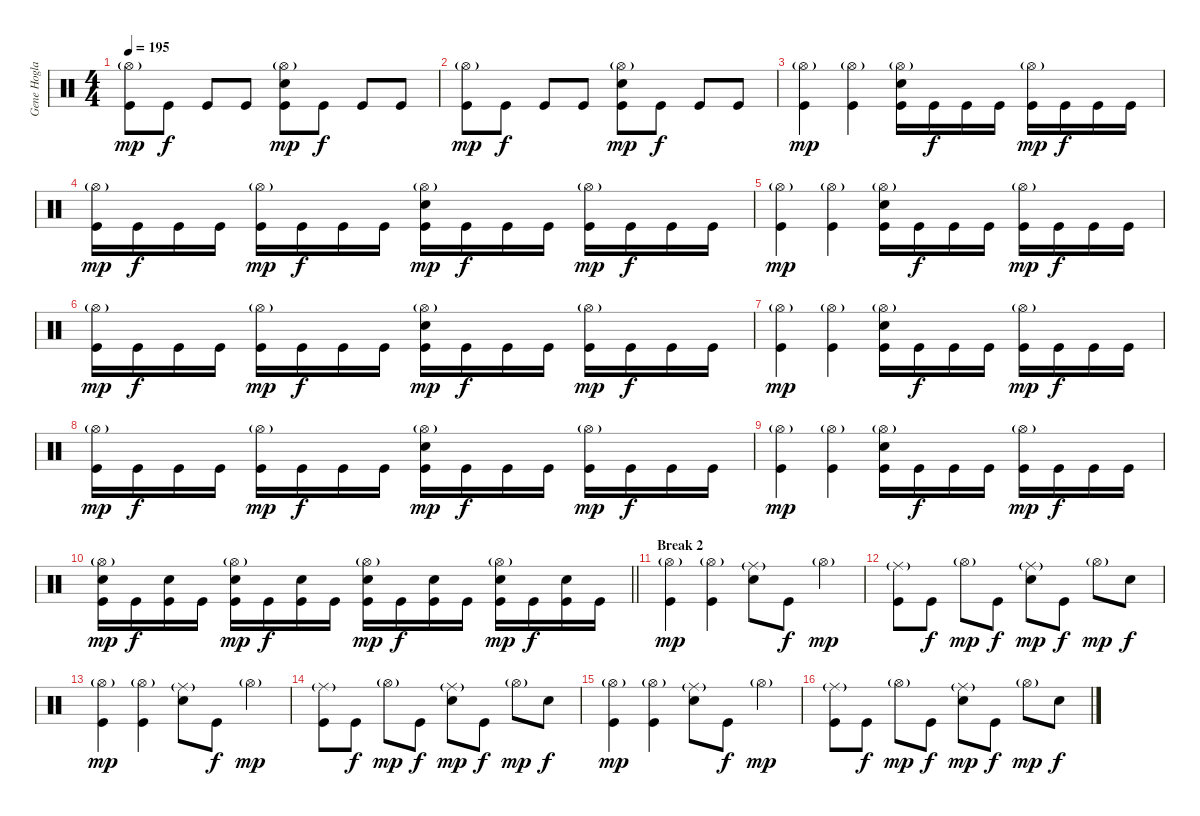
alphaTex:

\track ("Gene Hoglan" "Gene Hogla") {instrument percussion}
\staff {score}
\articulation defaults
\ts (4 4)
\tempo 195
\clef neutral
\ks c
("Hi-Hat (open)"{g} "Kick (hit)").8{dy mp} "Kick (hit)".8{dy f} "Kick (hit)".8 "Kick (hit)".8 ("Hi-Hat (open)"{g} "Electric Snare (hit)" "Kick (hit)").8{dy mp} "Kick (hit)".8{dy f} "Kick (hit)".8 "Kick (hit)".8 |
("Hi-Hat (open)"{g} "Kick (hit)").8{dy mp} "Kick (hit)".8{dy f} "Kick (hit)".8 "Kick (hit)".8 ("Hi-Hat (open)"{g} "Electric Snare (hit)" "Kick (hit)").8{dy mp} "Kick (hit)".8{dy f} "Kick (hit)".8 "Kick (hit)".8 |
("Hi-Hat (open)"{g} "Kick (hit)").4{dy mp} ("Hi-Hat (open)"{g} "Kick (hit)").4 ("Hi-Hat (open)"{g} "Electric Snare (hit)" "Kick (hit)").16 "Kick (hit)".16{dy f} "Kick (hit)".16 "Kick (hit)".16 ("Hi-Hat (open)"{g} "Kick (hit)").16{dy mp} "Kick (hit)".16{dy f} "Kick (hit)".16 "Kick (hit)".16 |
("Hi-Hat (open)"{g} "Kick (hit)").16{dy mp} "Kick (hit)".16{dy f} "Kick (hit)".16 "Kick (hit)".16 ("Hi-Hat (open)"{g} "Kick (hit)").16{dy mp} "Kick (hit)".16{dy f} "Kick (hit)".16 "Kick (hit)".16 ("Hi-Hat (open)"{g} "Electric Snare (hit)" "Kick (hit)").16{dy mp} "Kick (hit)".16{dy f} "Kick (hit)".16 "Kick (hit)".16 ("Hi-Hat (open)"{g} "Kick (hit)").16{dy mp} "Kick (hit)".16{dy f} "Kick (hit)".16 "Kick (hit)".16 |
("Hi-Hat (open)"{g} "Kick (hit)").4{dy mp} ("Hi-Hat (open)"{g} "Kick (hit)").4 ("Hi-Hat (open)"{g} "Electric Snare (hit)" "Kick (hit)").16 "Kick (hit)".16{dy f} "Kick (hit)".16 "Kick (hit)".16 ("Hi-Hat (open)"{g} "Kick (hit)").16{dy mp} "Kick (hit)".16{dy f} "Kick (hit)".16 "Kick (hit)".16 |
("Hi-Hat (open)"{g} "Kick (hit)").16{dy mp} "Kick (hit)".16{dy f} "Kick (hit)".16 "Kick (hit)".16 ("Hi-Hat (open)"{g} "Kick (hit)").16{dy mp} "Kick (hit)".16{dy f} "Kick (hit)".16 "Kick (hit)".16 ("Hi-Hat (open)"{g} "Electric Snare (hit)" "Kick (hit)").16{dy mp} "Kick (hit)".16{dy f} "Kick (hit)".16 "Kick (hit)".16 ("Hi-Hat (open)"{g} "Kick (hit)").16{dy mp} "Kick (hit)".16{dy f} "Kick (hit)".16 "Kick (hit)".16 |
("Hi-Hat (open)"{g} "Kick (hit)").4{dy mp} ("Hi-Hat (open)"{g} "Kick (hit)").4 ("Hi-Hat (open)"{g} "Electric Snare (hit)" "Kick (hit)").16 "Kick (hit)".16{dy f} "Kick (hit)".16 "Kick (hit)".16 ("Hi-Hat (open)"{g} "Kick (hit)").16{dy mp} "Kick (hit)".16{dy f} "Kick (hit)".16 "Kick (hit)".16 |
("Hi-Hat (open)"{g} "Kick (hit)").16{dy mp} "Kick (hit)".16{dy f} "Kick (hit)".16 "Kick (hit)".16 ("Hi-Hat (open)"{g} "Kick (hit)").16{dy mp} "Kick (hit)".16{dy f} "Kick (hit)".16 "Kick (hit)".16 ("Hi-Hat (open)"{g} "Electric Snare (hit)" "Kick (hit)").16{dy mp} "Kick (hit)".16{dy f} "Kick (hit)".16 "Kick (hit)".16 ("Hi-Hat (open)"{g} "Kick (hit)").16{dy mp} "Kick (hit)".16{dy f} "Kick (hit)".16 "Kick (hit)".16 |
("Hi-Hat (open)"{g} "Kick (hit)").4{dy mp} ("Hi-Hat (open)"{g} "Kick (hit)").4 ("Hi-Hat (open)"{g} "Electric Snare (hit)" "Kick (hit)").16 "Kick (hit)".16{dy f} "Kick (hit)".16 "Kick (hit)".16 ("Hi-Hat (open)"{g} "Kick (hit)").16{dy mp} "Kick (hit)".16{dy f} "Kick (hit)".16 "Kick (hit)".16 |
\barLineRight lightlight
("Hi-Hat (open)"{g} "Electric Snare (hit)" "Kick (hit)").16{dy mp} "Kick (hit)".16{dy f} ("Electric Snare (hit)" "Kick (hit)").16 "Kick (hit)".16 ("Hi-Hat (open)"{g} "Electric Snare (hit)" "Kick (hit)").16{dy mp} "Kick (hit)".16{dy f} ("Electric Snare (hit)" "Kick (hit)").16 "Kick (hit)".16 ("Hi-Hat (open)"{g} "Electric Snare (hit)" "Kick (hit)").16{dy mp} "Kick (hit)".16{dy f} ("Electric Snare (hit)" "Kick (hit)").16 "Kick (hit)".16 ("Hi-Hat (open)"{g} "Electric Snare (hit)" "Kick (hit)").16{dy mp} "Kick (hit)".16{dy f} ("Electric Snare (hit)" "Kick (hit)").16 "Kick (hit)".16 |
\section ("" "Break 2")
("Hi-Hat (open)"{g} "Kick (hit)").4{dy mp} ("Hi-Hat (open)"{g} "Kick (hit)").4 ("Ride (middle)"{g} "Electric Snare (hit)").8 "Kick (hit)".8{dy f} "Hi-Hat (open)"{g}.4{dy mp} |
("Ride (middle)"{g} "Kick (hit)").8 "Kick (hit)".8{dy f} "Hi-Hat (open)"{g}.8{dy mp} "Kick (hit)".8{dy f} ("Ride (middle)"{g} "Electric Snare (hit)").8{dy mp} "Kick (hit)".8{dy f} "Hi-Hat (open)"{g}.8{dy mp} "Electric Snare (hit)".8{dy f} |
("Hi-Hat (open)"{g} "Kick (hit)").4{dy mp} ("Hi-Hat (open)"{g} "Kick (hit)").4 ("Ride (middle)"{g} "Electric Snare (hit)").8 "Kick (hit)".8{dy f} "Hi-Hat (open)"{g}.4{dy mp} |
("Ride (middle)"{g} "Kick (hit)").8 "Kick (hit)".8{dy f} "Hi-Hat (open)"{g}.8{dy mp} "Kick (hit)".8{dy f} ("Ride (middle)"{g} "Electric Snare (hit)").8{dy mp} "Kick (hit)".8{dy f} "Hi-Hat (open)"{g}.8{dy mp} "Electric Snare (hit)".8{dy f} |
("Hi-Hat (open)"{g} "Kick (hit)").4{dy mp} ("Hi-Hat (open)"{g} "Kick (hit)").4 ("Ride (middle)"{g} "Electric Snare (hit)").8 "Kick (hit)".8{dy f} "Hi-Hat (open)"{g}.4{dy mp} |
("Ride (middle)"{g} "Kick (hit)").8 "Kick (hit)".8{dy f} "Hi-Hat (open)"{g}.8{dy mp} "Kick (hit)".8{dy f} ("Ride (middle)"{g} "Electric Snare (hit)").8{dy mp} "Kick (hit)".8{dy f} "Hi-Hat (open)"{g}.8{dy mp} "Electric Snare (hit)".8{dy f}
